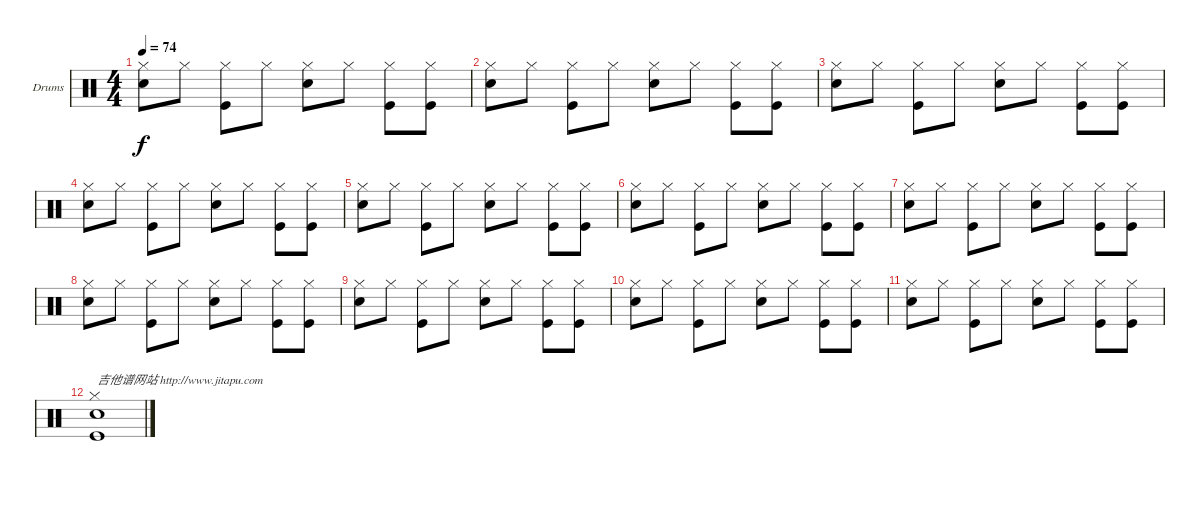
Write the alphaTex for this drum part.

\bracketExtendMode groupsimilarinstruments
\firstSystemTrackNameOrientation horizontal
\otherSystemsTrackNameOrientation horizontal
\track ("Drumkit" "Drums") {instrument percussion}
\staff {score}
\articulation defaults
\ts (4 4)
\tempo 74
\clef neutral
\ks c
("Hi-Hat (closed)" "Snare (hit) 2").8{dy f} "Hi-Hat (closed)".8 ("Hi-Hat (closed)" "Kick (hit)").8 "Hi-Hat (closed)".8 ("Hi-Hat (closed)" "Snare (hit) 2").8 "Hi-Hat (closed)".8 ("Hi-Hat (closed)" "Kick (hit)").8 ("Hi-Hat (closed)" "Kick (hit)").8 |
("Hi-Hat (closed)" "Snare (hit) 2").8 "Hi-Hat (closed)".8 ("Hi-Hat (closed)" "Kick (hit)").8 "Hi-Hat (closed)".8 ("Hi-Hat (closed)" "Snare (hit) 2").8 "Hi-Hat (closed)".8 ("Hi-Hat (closed)" "Kick (hit)").8 ("Hi-Hat (closed)" "Kick (hit)").8 |
("Hi-Hat (closed)" "Snare (hit) 2").8 "Hi-Hat (closed)".8 ("Hi-Hat (closed)" "Kick (hit)").8 "Hi-Hat (closed)".8 ("Hi-Hat (closed)" "Snare (hit) 2").8 "Hi-Hat (closed)".8 ("Hi-Hat (closed)" "Kick (hit)").8 ("Hi-Hat (closed)" "Kick (hit)").8 |
("Hi-Hat (closed)" "Snare (hit) 2").8 "Hi-Hat (closed)".8 ("Hi-Hat (closed)" "Kick (hit)").8 "Hi-Hat (closed)".8 ("Hi-Hat (closed)" "Snare (hit) 2").8 "Hi-Hat (closed)".8 ("Hi-Hat (closed)" "Kick (hit)").8 ("Hi-Hat (closed)" "Kick (hit)").8 |
("Hi-Hat (closed)" "Snare (hit) 2").8 "Hi-Hat (closed)".8 ("Hi-Hat (closed)" "Kick (hit)").8 "Hi-Hat (closed)".8 ("Hi-Hat (closed)" "Snare (hit) 2").8 "Hi-Hat (closed)".8 ("Hi-Hat (closed)" "Kick (hit)").8 ("Hi-Hat (closed)" "Kick (hit)").8 |
("Hi-Hat (closed)" "Snare (hit) 2").8 "Hi-Hat (closed)".8 ("Hi-Hat (closed)" "Kick (hit)").8 "Hi-Hat (closed)".8 ("Hi-Hat (closed)" "Snare (hit) 2").8 "Hi-Hat (closed)".8 ("Hi-Hat (closed)" "Kick (hit)").8 ("Hi-Hat (closed)" "Kick (hit)").8 |
("Hi-Hat (closed)" "Snare (hit) 2").8 "Hi-Hat (closed)".8 ("Hi-Hat (closed)" "Kick (hit)").8 "Hi-Hat (closed)".8 ("Hi-Hat (closed)" "Snare (hit) 2").8 "Hi-Hat (closed)".8 ("Hi-Hat (closed)" "Kick (hit)").8 ("Hi-Hat (closed)" "Kick (hit)").8 |
("Hi-Hat (closed)" "Snare (hit) 2").8 "Hi-Hat (closed)".8 ("Hi-Hat (closed)" "Kick (hit)").8 "Hi-Hat (closed)".8 ("Hi-Hat (closed)" "Snare (hit) 2").8 "Hi-Hat (closed)".8 ("Hi-Hat (closed)" "Kick (hit)").8 ("Hi-Hat (closed)" "Kick (hit)").8 |
("Hi-Hat (closed)" "Snare (hit) 2").8 "Hi-Hat (closed)".8 ("Hi-Hat (closed)" "Kick (hit)").8 "Hi-Hat (closed)".8 ("Hi-Hat (closed)" "Snare (hit) 2").8 "Hi-Hat (closed)".8 ("Hi-Hat (closed)" "Kick (hit)").8 ("Hi-Hat (closed)" "Kick (hit)").8 |
("Hi-Hat (closed)" "Snare (hit) 2").8 "Hi-Hat (closed)".8 ("Hi-Hat (closed)" "Kick (hit)").8 "Hi-Hat (closed)".8 ("Hi-Hat (closed)" "Snare (hit) 2").8 "Hi-Hat (closed)".8 ("Hi-Hat (closed)" "Kick (hit)").8 ("Hi-Hat (closed)" "Kick (hit)").8 |
("Hi-Hat (closed)" "Snare (hit) 2").8 "Hi-Hat (closed)".8 ("Hi-Hat (closed)" "Kick (hit)").8 "Hi-Hat (closed)".8 ("Hi-Hat (closed)" "Snare (hit) 2").8 "Hi-Hat (closed)".8 ("Hi-Hat (closed)" "Kick (hit)").8 ("Hi-Hat (closed)" "Kick (hit)").8 |
("Hi-Hat (closed)" "Snare (hit) 2" "Kick (hit)").1{txt "吉他谱网站 http://www.jitapu.com"}
